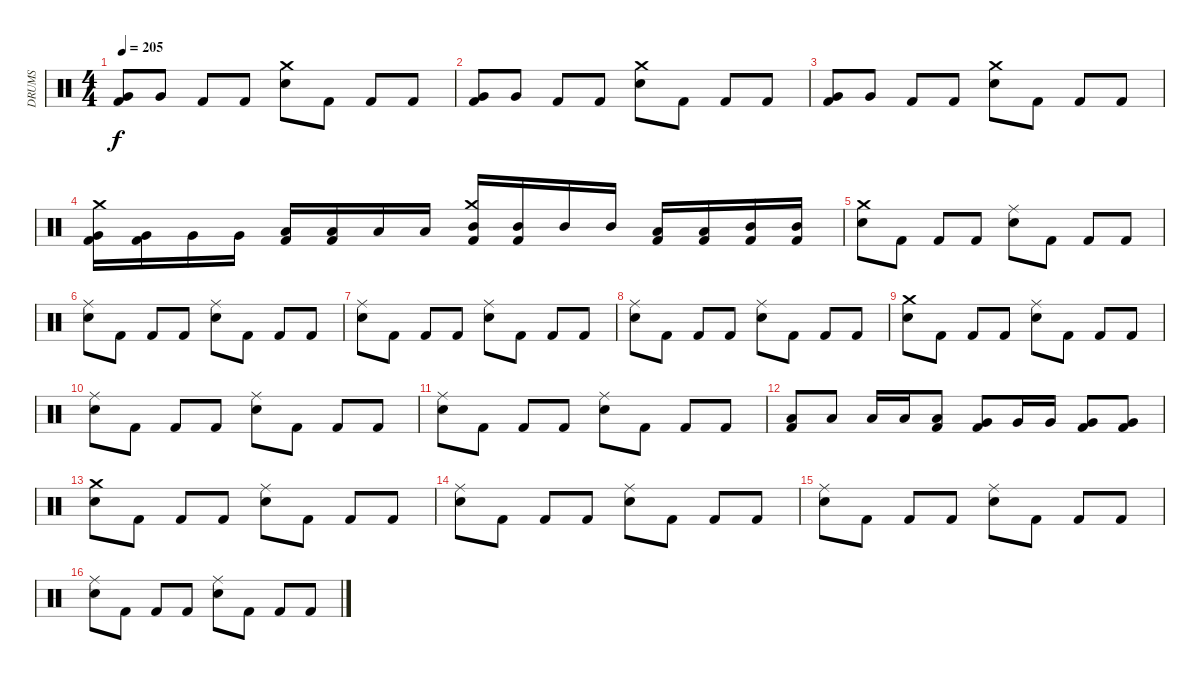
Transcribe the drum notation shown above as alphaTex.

\track ("DRUMS" "DRUMS") {instrument percussion}
\staff {score}
\articulation defaults
\ts (4 4)
\tempo 205
\clef neutral
\ks c
("Very Low Tom (hit)" "Kick (hit) 2").8{dy f} "Very Low Tom (hit)".8 "Kick (hit) 2".8 "Kick (hit) 2".8 ("Crash medium (hit)" "Snare (hit) 2").8 "Kick (hit) 2".8 "Kick (hit) 2".8 "Kick (hit) 2".8 |
("Very Low Tom (hit)" "Kick (hit) 2").8 "Very Low Tom (hit)".8 "Kick (hit) 2".8 "Kick (hit) 2".8 ("Crash medium (hit)" "Snare (hit) 2").8 "Kick (hit) 2".8 "Kick (hit) 2".8 "Kick (hit) 2".8 |
("Very Low Tom (hit)" "Kick (hit) 2").8 "Very Low Tom (hit)".8 "Kick (hit) 2".8 "Kick (hit) 2".8 ("Crash medium (hit)" "Snare (hit) 2").8 "Kick (hit) 2".8 "Kick (hit) 2".8 "Kick (hit) 2".8 |
("Crash medium (hit)" "Very Low Tom (hit)" "Kick (hit) 2").16 ("Very Low Tom (hit)" "Kick (hit) 2").16 "Very Low Tom (hit)".16 "Very Low Tom (hit)".16 ("Low Tom (hit)" "Kick (hit) 2").16 ("Low Tom (hit)" "Kick (hit) 2").16 "Low Tom (hit)".16 "Low Tom (hit)".16 ("Crash medium (hit)" "Mid Tom (hit)" "Kick (hit) 2").16 ("Mid Tom (hit)" "Kick (hit) 2").16 "Mid Tom (hit)".16 "Mid Tom (hit)".16 ("Low Tom (hit)" "Kick (hit) 2").16 ("Low Tom (hit)" "Kick (hit) 2").16 ("Mid Tom (hit)" "Kick (hit) 2").16 ("Mid Tom (hit)" "Kick (hit) 2").16 |
("Crash medium (hit)" "Snare (hit) 2").8 "Kick (hit) 2".8 "Kick (hit) 2".8 "Kick (hit) 2".8 ("Ride (middle)" "Snare (hit) 2").8 "Kick (hit) 2".8 "Kick (hit) 2".8 "Kick (hit) 2".8 |
("Ride (middle)" "Snare (hit) 2").8 "Kick (hit) 2".8 "Kick (hit) 2".8 "Kick (hit) 2".8 ("Ride (middle)" "Snare (hit) 2").8 "Kick (hit) 2".8 "Kick (hit) 2".8 "Kick (hit) 2".8 |
("Ride (middle)" "Snare (hit) 2").8 "Kick (hit) 2".8 "Kick (hit) 2".8 "Kick (hit) 2".8 ("Ride (middle)" "Snare (hit) 2").8 "Kick (hit) 2".8 "Kick (hit) 2".8 "Kick (hit) 2".8 |
("Ride (middle)" "Snare (hit) 2").8 "Kick (hit) 2".8 "Kick (hit) 2".8 "Kick (hit) 2".8 ("Ride (middle)" "Snare (hit) 2").8 "Kick (hit) 2".8 "Kick (hit) 2".8 "Kick (hit) 2".8 |
("Crash medium (hit)" "Snare (hit) 2").8 "Kick (hit) 2".8 "Kick (hit) 2".8 "Kick (hit) 2".8 ("Ride (middle)" "Snare (hit) 2").8 "Kick (hit) 2".8 "Kick (hit) 2".8 "Kick (hit) 2".8 |
("Ride (middle)" "Snare (hit) 2").8 "Kick (hit) 2".8 "Kick (hit) 2".8 "Kick (hit) 2".8 ("Ride (middle)" "Snare (hit) 2").8 "Kick (hit) 2".8 "Kick (hit) 2".8 "Kick (hit) 2".8 |
("Ride (middle)" "Snare (hit) 2").8 "Kick (hit) 2".8 "Kick (hit) 2".8 "Kick (hit) 2".8 ("Ride (middle)" "Snare (hit) 2").8 "Kick (hit) 2".8 "Kick (hit) 2".8 "Kick (hit) 2".8 |
("Low Tom (hit)" "Kick (hit) 2").8 "Low Tom (hit)".8 "Low Tom (hit)".16 "Low Tom (hit)".16 ("Low Tom (hit)" "Kick (hit) 2").8 ("Very Low Tom (hit)" "Kick (hit) 2").8 "Very Low Tom (hit)".16 "Very Low Tom (hit)".16 ("Very Low Tom (hit)" "Kick (hit) 2").8 ("Very Low Tom (hit)" "Kick (hit) 2").8 |
("Crash medium (hit)" "Snare (hit) 2").8 "Kick (hit) 2".8 "Kick (hit) 2".8 "Kick (hit) 2".8 ("Ride (middle)" "Snare (hit) 2").8 "Kick (hit) 2".8 "Kick (hit) 2".8 "Kick (hit) 2".8 |
("Ride (middle)" "Snare (hit) 2").8 "Kick (hit) 2".8 "Kick (hit) 2".8 "Kick (hit) 2".8 ("Ride (middle)" "Snare (hit) 2").8 "Kick (hit) 2".8 "Kick (hit) 2".8 "Kick (hit) 2".8 |
("Ride (middle)" "Snare (hit) 2").8 "Kick (hit) 2".8 "Kick (hit) 2".8 "Kick (hit) 2".8 ("Ride (middle)" "Snare (hit) 2").8 "Kick (hit) 2".8 "Kick (hit) 2".8 "Kick (hit) 2".8 |
("Ride (middle)" "Snare (hit) 2").8 "Kick (hit) 2".8 "Kick (hit) 2".8 "Kick (hit) 2".8 ("Ride (middle)" "Snare (hit) 2").8 "Kick (hit) 2".8 "Kick (hit) 2".8 "Kick (hit) 2".8
